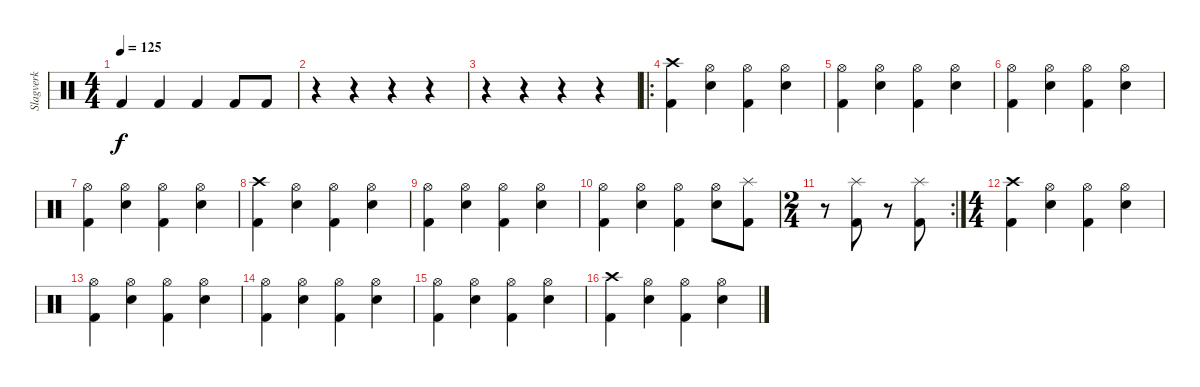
\track ("Slagverk" "Slagverk") {instrument percussion}
\staff {score}
\articulation defaults
\ts (4 4)
\tempo 125
\clef neutral
\ks c "Kick (hit) 2".4{dy f} "Kick (hit) 2".4 "Kick (hit) 2".4 "Kick (hit) 2".8 "Kick (hit) 2".8
|
r.4 r.4 r.4 r.4 |
r.4 r.4 r.4 r.4 |
\ro
("Crash high (hit)" "Kick (hit) 2").4 ("Hi-Hat (open)" "Snare (hit) 2").4 ("Hi-Hat (open)" "Kick (hit) 2").4 ("Hi-Hat (open)" "Snare (hit) 2").4 |
("Hi-Hat (open)" "Kick (hit) 2").4 ("Hi-Hat (open)" "Snare (hit) 2").4 ("Hi-Hat (open)" "Kick (hit) 2").4 ("Hi-Hat (open)" "Snare (hit) 2").4 |
("Hi-Hat (open)" "Kick (hit) 2").4 ("Hi-Hat (open)" "Snare (hit) 2").4 ("Hi-Hat (open)" "Kick (hit) 2").4 ("Hi-Hat (open)" "Snare (hit) 2").4 |
("Hi-Hat (open)" "Kick (hit) 2").4 ("Hi-Hat (open)" "Snare (hit) 2").4 ("Hi-Hat (open)" "Kick (hit) 2").4 ("Hi-Hat (open)" "Snare (hit) 2").4 |
("Crash high (hit)" "Kick (hit) 2").4 ("Hi-Hat (open)" "Snare (hit) 2").4 ("Hi-Hat (open)" "Kick (hit) 2").4 ("Hi-Hat (open)" "Snare (hit) 2").4 |
("Hi-Hat (open)" "Kick (hit) 2").4 ("Hi-Hat (open)" "Snare (hit) 2").4 ("Hi-Hat (open)" "Kick (hit) 2").4 ("Hi-Hat (open)" "Snare (hit) 2").4 |
("Hi-Hat (open)" "Kick (hit) 2").4 ("Hi-Hat (open)" "Snare (hit) 2").4 ("Hi-Hat (open)" "Kick (hit) 2").4 ("Hi-Hat (open)" "Snare (hit) 2").8 ("Splash (hit)" "Kick (hit) 2").8 |
\rc 2
\ts (2 4)
r.8 ("Splash (hit)" "Kick (hit) 2").8 r.8 ("Splash (hit)" "Kick (hit) 2").8 |
\ts (4 4)
("Crash high (hit)" "Kick (hit) 2").4 ("Hi-Hat (open)" "Snare (hit) 2").4 ("Hi-Hat (open)" "Kick (hit) 2").4 ("Hi-Hat (open)" "Snare (hit) 2").4 |
("Hi-Hat (open)" "Kick (hit) 2").4 ("Hi-Hat (open)" "Snare (hit) 2").4 ("Hi-Hat (open)" "Kick (hit) 2").4 ("Hi-Hat (open)" "Snare (hit) 2").4 |
("Hi-Hat (open)" "Kick (hit) 2").4 ("Hi-Hat (open)" "Snare (hit) 2").4 ("Hi-Hat (open)" "Kick (hit) 2").4 ("Hi-Hat (open)" "Snare (hit) 2").4 |
("Hi-Hat (open)" "Kick (hit) 2").4 ("Hi-Hat (open)" "Snare (hit) 2").4 ("Hi-Hat (open)" "Kick (hit) 2").4 ("Hi-Hat (open)" "Snare (hit) 2").4 |
("Crash high (hit)" "Kick (hit) 2").4 ("Hi-Hat (open)" "Snare (hit) 2").4 ("Hi-Hat (open)" "Kick (hit) 2").4 ("Hi-Hat (open)" "Snare (hit) 2").4
